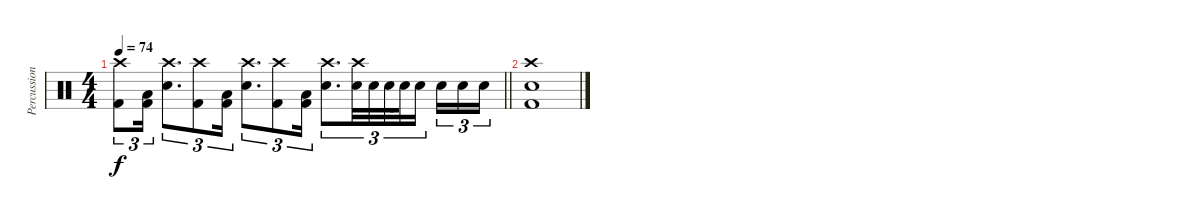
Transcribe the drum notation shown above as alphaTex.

\track ("Percussioni" "Percussion") {instrument percussion}
\staff {score}
\articulation defaults
\ts (4 4)
\tempo 74
\clef neutral
\barLineRight lightlight
\ks c
("Crash high (hit)" "Kick (hit) 2").8{tu (3 2) dy f} ("Low Floor Tom (hit)" "Kick (hit) 2").16{tu (3 2)} ("Crash high (hit)" "Snare (hit) 2").8{d tu (3 2)} ("Crash high (hit)" "Kick (hit) 2").8{tu (3 2)} ("Low Floor Tom (hit)" "Kick (hit) 2").16{tu (3 2)} ("Crash high (hit)" "Snare (hit) 2").8{d tu (3 2)} ("Crash high (hit)" "Kick (hit) 2").8{tu (3 2)} ("Low Floor Tom (hit)" "Kick (hit) 2").16{tu (3 2)} ("Crash high (hit)" "Snare (hit) 2").8{d tu (3 2)} ("Crash high (hit)" "Snare (hit) 2").32{tu (3 2)} "Snare (hit) 2".32{tu (3 2)} "Snare (hit) 2".32{tu (3 2) beam splitsecondary} "Snare (hit) 2".32{tu (3 2)} "Snare (hit) 2".16{tu (3 2) beam splitsecondary} "Snare (hit) 2".16{tu (3 2)} "Snare (hit) 2".16{tu (3 2)} "Snare (hit) 2".16{tu (3 2)} |
("Crash high (hit)" "Snare (hit) 2" "Kick (hit) 2").1
